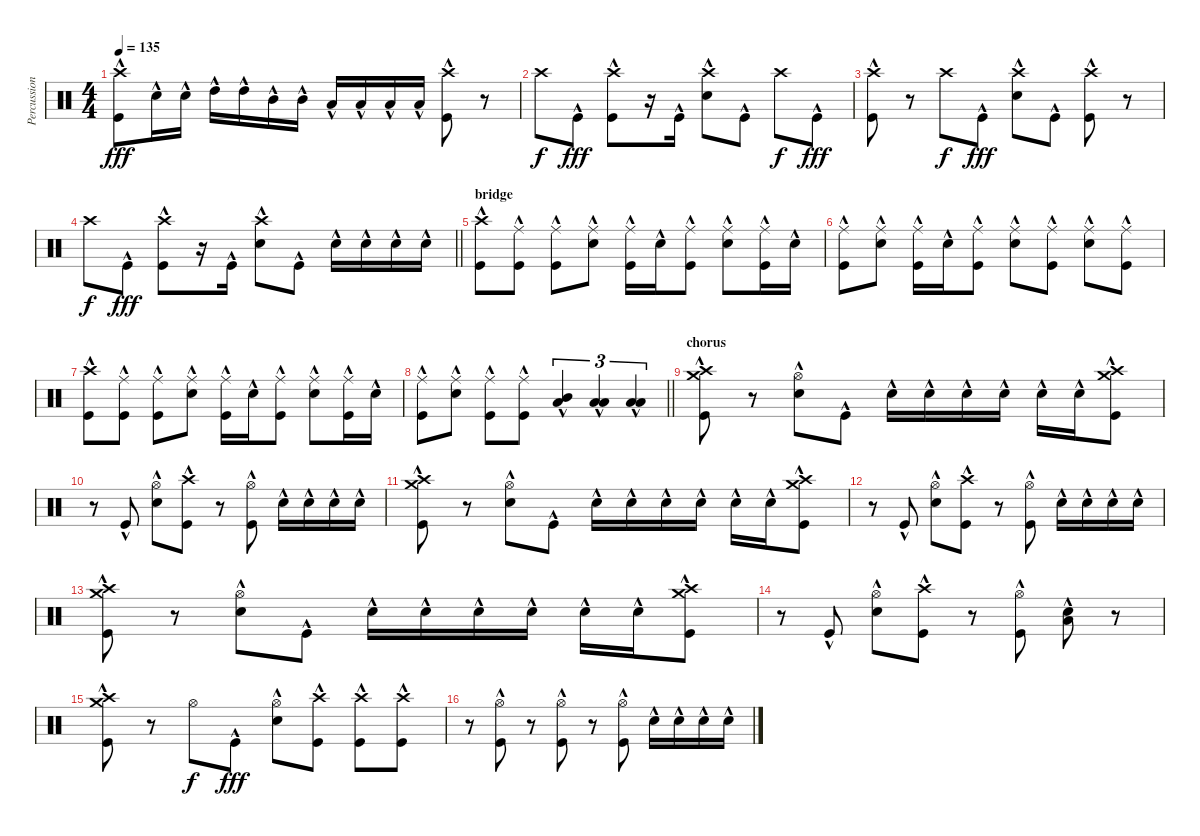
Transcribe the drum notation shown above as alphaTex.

\track ("Percussion" "Percussion") {instrument percussion}
\staff {score}
\articulation defaults
\ts (4 4)
\tempo 135
\clef neutral
\ks c
("Crash high (hit)" "Kick (hit)"{hac}).8{dy fff} "Snare (hit) 2"{hac}.16 "Snare (hit) 2"{hac}.16 "High Tom (hit)"{hac}.16 "High Tom (hit)"{hac}.16 "Mid Tom (hit)"{hac}.16 "Mid Tom (hit)"{hac}.16 "Low Tom (hit)"{hac}.16 "Low Tom (hit)"{hac}.16 "Low Floor Tom (hit)"{hac}.16 "Low Floor Tom (hit)"{hac}.16 ("Crash high (hit)" "Kick (hit)"{hac}).8 r.8 |
"Crash high (hit)".8{dy f} "Kick (hit)"{hac}.8{dy fff} ("Crash high (hit)" "Kick (hit)"{hac}).8 r.16 "Kick (hit)"{hac}.16 ("Crash high (hit)" "Snare (hit) 2"{hac}).8 "Kick (hit)"{hac}.8 "Crash high (hit)".8{dy f} "Kick (hit)"{hac}.8{dy fff} |
("Crash high (hit)" "Kick (hit)"{hac}).8 r.8 "Crash high (hit)".8{dy f} "Kick (hit)"{hac}.8{dy fff} ("Crash high (hit)" "Snare (hit) 2"{hac}).8 "Kick (hit)"{hac}.8 ("Crash high (hit)" "Kick (hit)"{hac}).8 r.8 |
\barLineRight lightlight "Crash high (hit)".8{dy f} "Kick (hit)"{hac}.8{dy fff}
("Crash high (hit)" "Kick (hit)"{hac}).8 r.16 "Kick (hit)"{hac}.16 ("Crash high (hit)" "Snare (hit) 2"{hac}).8 "Kick (hit)"{hac}.8 "Snare (hit) 2"{hac}.16 "Snare (hit) 2"{hac}.16 "Snare (hit) 2"{hac}.16 "Snare (hit) 2"{hac}.16 |
\section ("" "bridge")
("Crash high (hit)" "Kick (hit)"{hac}).8 ("Ride (middle)" "Kick (hit)"{hac}).8 ("Ride (middle)" "Kick (hit)"{hac}).8 ("Ride (middle)" "Snare (hit) 2"{hac}).8 ("Ride (middle)" "Kick (hit)"{hac}).16 "Snare (hit) 2"{hac}.16 ("Ride (middle)" "Kick (hit)"{hac}).8 ("Ride (middle)" "Snare (hit) 2"{hac}).8 ("Ride (middle)" "Kick (hit)"{hac}).16 "Snare (hit) 2"{hac}.16 |
("Ride (middle)" "Kick (hit)"{hac}).8 ("Ride (middle)" "Snare (hit) 2"{hac}).8 ("Ride (middle)" "Kick (hit)"{hac}).16 "Snare (hit) 2"{hac}.16 ("Ride (middle)" "Kick (hit)"{hac}).8 ("Ride (middle)" "Snare (hit) 2"{hac}).8 ("Ride (middle)" "Kick (hit)"{hac}).8 ("Ride (middle)" "Snare (hit) 2"{hac}).8 ("Ride (middle)" "Kick (hit)"{hac}).8 |
("Crash high (hit)" "Kick (hit)"{hac}).8 ("Ride (middle)" "Kick (hit)"{hac}).8 ("Ride (middle)" "Kick (hit)"{hac}).8 ("Ride (middle)" "Snare (hit) 2"{hac}).8 ("Ride (middle)" "Kick (hit)"{hac}).16 "Snare (hit) 2"{hac}.16 ("Ride (middle)" "Kick (hit)"{hac}).8 ("Ride (middle)" "Snare (hit) 2"{hac}).8 ("Ride (middle)" "Kick (hit)"{hac}).16 "Snare (hit) 2"{hac}.16 |
\barLineRight lightlight
("Ride (middle)" "Kick (hit)"{hac}).8 ("Ride (middle)" "Snare (hit) 2"{hac}).8 ("Ride (middle)" "Kick (hit)"{hac}).8 ("Ride (middle)" "Kick (hit)"{hac}).8 ("Mid Tom (hit)"{hac} "Low Tom (hit)"{hac}).4{tu (3 2)} ("Low Tom (hit)"{hac} "Low Floor Tom (hit)"{hac}).4{tu (3 2)} ("Low Floor Tom (hit)"{hac} "Low Floor Tom (hit)"{hac}).4{tu (3 2)} |
\section ("" "chorus")
("Crash medium (hit)" "Crash high (hit)" "Kick (hit)"{hac}).8 r.8 ("Hi-Hat (open)" "Snare (hit) 2"{hac}).8 "Kick (hit)"{hac}.8 "Snare (hit) 2"{hac}.16 "Snare (hit) 2"{hac}.16 "Snare (hit) 2"{hac}.16 "Snare (hit) 2"{hac}.16 "Snare (hit) 2"{hac}.16 "Snare (hit) 2"{hac}.16 ("Crash medium (hit)" "Crash high (hit)" "Kick (hit)"{hac}).8 |
r.8 "Kick (hit)"{hac}.8 ("Hi-Hat (open)" "Snare (hit) 2"{hac}).8 ("Crash high (hit)" "Kick (hit)"{hac}).8 r.8 ("Hi-Hat (open)" "Kick (hit)"{hac}).8 "Snare (hit) 2"{hac}.16 "Snare (hit) 2"{hac}.16 "Snare (hit) 2"{hac}.16 "Snare (hit) 2"{hac}.16 |
("Crash medium (hit)" "Crash high (hit)" "Kick (hit)"{hac}).8 r.8 ("Hi-Hat (open)" "Snare (hit) 2"{hac}).8 "Kick (hit)"{hac}.8 "Snare (hit) 2"{hac}.16 "Snare (hit) 2"{hac}.16 "Snare (hit) 2"{hac}.16 "Snare (hit) 2"{hac}.16 "Snare (hit) 2"{hac}.16 "Snare (hit) 2"{hac}.16 ("Crash medium (hit)" "Crash high (hit)" "Kick (hit)"{hac}).8 |
r.8 "Kick (hit)"{hac}.8 ("Hi-Hat (open)" "Snare (hit) 2"{hac}).8 ("Crash high (hit)" "Kick (hit)"{hac}).8 r.8 ("Hi-Hat (open)" "Kick (hit)"{hac}).8 "Snare (hit) 2"{hac}.16 "Snare (hit) 2"{hac}.16 "Snare (hit) 2"{hac}.16 "Snare (hit) 2"{hac}.16 |
("Crash medium (hit)" "Crash high (hit)" "Kick (hit)"{hac}).8 r.8 ("Hi-Hat (open)" "Snare (hit) 2"{hac}).8 "Kick (hit)"{hac}.8 "Snare (hit) 2"{hac}.16 "Snare (hit) 2"{hac}.16 "Snare (hit) 2"{hac}.16 "Snare (hit) 2"{hac}.16 "Snare (hit) 2"{hac}.16 "Snare (hit) 2"{hac}.16 ("Crash medium (hit)" "Crash high (hit)" "Kick (hit)"{hac}).8 |
r.8 "Kick (hit)"{hac}.8 ("Hi-Hat (open)" "Snare (hit) 2"{hac}).8 ("Crash high (hit)" "Kick (hit)"{hac}).8 r.8 ("Hi-Hat (open)" "Kick (hit)"{hac}).8 ("Low Floor Tom (hit)"{hac} "Snare (hit) 2"{hac}).8 r.8 |
("Crash medium (hit)" "Crash high (hit)" "Kick (hit)"{hac}).8 r.8 "Hi-Hat (open)".8{dy f} "Kick (hit)"{hac}.8{dy fff} ("Hi-Hat (open)" "Snare (hit) 2"{hac}).8 ("Crash high (hit)" "Kick (hit)"{hac}).8 ("Crash high (hit)" "Kick (hit)"{hac}).8 ("Crash high (hit)" "Kick (hit)"{hac}).8 |
r.8 ("Hi-Hat (open)" "Kick (hit)"{hac}).8 r.8 ("Hi-Hat (open)" "Kick (hit)"{hac}).8 r.8 ("Hi-Hat (open)" "Kick (hit)"{hac}).8 "Snare (hit) 2"{hac}.16 "Snare (hit) 2"{hac}.16 "Snare (hit) 2"{hac}.16 "Snare (hit) 2"{hac}.16
